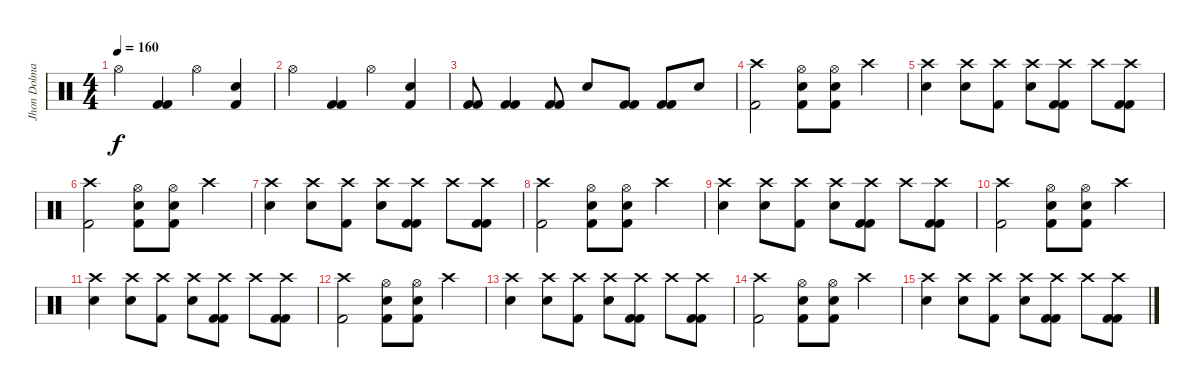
\track ("Jhon Dolmayan(Drum)" "Jhon Dolma") {instrument percussion}
\staff {score}
\articulation defaults
\ts (4 4)
\tempo 160
\clef neutral
\ks c "Hi-Hat (open)".4{dy f}
("Kick (hit) 2" "Kick (hit) 2").4 "Hi-Hat (open)".4 ("Kick (hit) 2" "Electric Snare (hit)").4 |
"Hi-Hat (open)".4 ("Kick (hit) 2" "Kick (hit) 2").4 "Hi-Hat (open)".4 ("Kick (hit) 2" "Electric Snare (hit)").4 |
("Kick (hit) 2" "Kick (hit) 2").8 ("Kick (hit) 2" "Kick (hit) 2").4 ("Kick (hit) 2" "Kick (hit) 2").8 "Electric Snare (hit)".8 ("Kick (hit) 2" "Kick (hit) 2").8 ("Kick (hit) 2" "Kick (hit) 2").8 "Electric Snare (hit)".8 |
("Crash high (hit)" "Kick (hit) 2").2 ("Electric Snare (hit)" "Kick (hit) 2" "Hi-Hat (open)").8 ("Electric Snare (hit)" "Kick (hit) 2" "Hi-Hat (open)").8 "Crash high (hit)".4 |
("Electric Snare (hit)" "Crash high (hit)").4 ("Electric Snare (hit)" "Crash high (hit)").8 ("Crash high (hit)" "Kick (hit) 2").8 ("Electric Snare (hit)" "Crash high (hit)").8 ("Crash high (hit)" "Kick (hit) 2" "Kick (hit) 2").8 "Crash high (hit)".8 ("Crash high (hit)" "Kick (hit) 2" "Kick (hit) 2").8 |
("Crash high (hit)" "Kick (hit) 2").2 ("Electric Snare (hit)" "Kick (hit) 2" "Hi-Hat (open)").8 ("Electric Snare (hit)" "Kick (hit) 2" "Hi-Hat (open)").8 "Crash high (hit)".4 |
("Electric Snare (hit)" "Crash high (hit)").4 ("Electric Snare (hit)" "Crash high (hit)").8 ("Crash high (hit)" "Kick (hit) 2").8 ("Electric Snare (hit)" "Crash high (hit)").8 ("Crash high (hit)" "Kick (hit) 2" "Kick (hit) 2").8 "Crash high (hit)".8 ("Crash high (hit)" "Kick (hit) 2" "Kick (hit) 2").8 |
("Crash high (hit)" "Kick (hit) 2").2 ("Electric Snare (hit)" "Kick (hit) 2" "Hi-Hat (open)").8 ("Electric Snare (hit)" "Kick (hit) 2" "Hi-Hat (open)").8 "Crash high (hit)".4 |
("Electric Snare (hit)" "Crash high (hit)").4 ("Electric Snare (hit)" "Crash high (hit)").8 ("Crash high (hit)" "Kick (hit) 2").8 ("Electric Snare (hit)" "Crash high (hit)").8 ("Crash high (hit)" "Kick (hit) 2" "Kick (hit) 2").8 "Crash high (hit)".8 ("Crash high (hit)" "Kick (hit) 2" "Kick (hit) 2").8 |
("Crash high (hit)" "Kick (hit) 2").2 ("Electric Snare (hit)" "Kick (hit) 2" "Hi-Hat (open)").8 ("Electric Snare (hit)" "Kick (hit) 2" "Hi-Hat (open)").8 "Crash high (hit)".4 |
("Electric Snare (hit)" "Crash high (hit)").4 ("Electric Snare (hit)" "Crash high (hit)").8 ("Crash high (hit)" "Kick (hit) 2").8 ("Electric Snare (hit)" "Crash high (hit)").8 ("Crash high (hit)" "Kick (hit) 2" "Kick (hit) 2").8 "Crash high (hit)".8 ("Crash high (hit)" "Kick (hit) 2" "Kick (hit) 2").8 |
("Crash high (hit)" "Kick (hit) 2").2 ("Electric Snare (hit)" "Kick (hit) 2" "Hi-Hat (open)").8 ("Electric Snare (hit)" "Kick (hit) 2" "Hi-Hat (open)").8 "Crash high (hit)".4 |
("Electric Snare (hit)" "Crash high (hit)").4 ("Electric Snare (hit)" "Crash high (hit)").8 ("Crash high (hit)" "Kick (hit) 2").8 ("Electric Snare (hit)" "Crash high (hit)").8 ("Crash high (hit)" "Kick (hit) 2" "Kick (hit) 2").8 "Crash high (hit)".8 ("Crash high (hit)" "Kick (hit) 2" "Kick (hit) 2").8 |
("Crash high (hit)" "Kick (hit) 2").2 ("Electric Snare (hit)" "Kick (hit) 2" "Hi-Hat (open)").8 ("Electric Snare (hit)" "Kick (hit) 2" "Hi-Hat (open)").8 "Crash high (hit)".4 |
("Electric Snare (hit)" "Crash high (hit)").4 ("Electric Snare (hit)" "Crash high (hit)").8 ("Crash high (hit)" "Kick (hit) 2").8 ("Electric Snare (hit)" "Crash high (hit)").8 ("Crash high (hit)" "Kick (hit) 2" "Kick (hit) 2").8 "Crash high (hit)".8 ("Crash high (hit)" "Kick (hit) 2" "Kick (hit) 2").8
